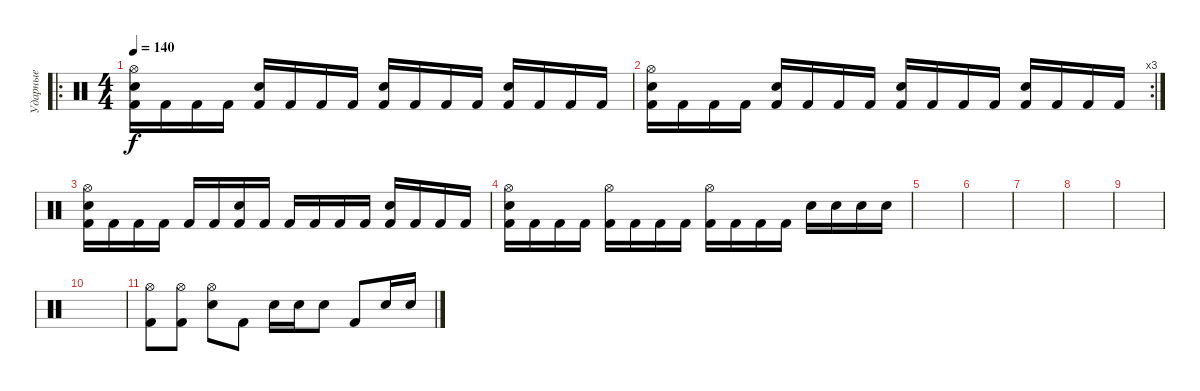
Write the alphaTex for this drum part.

\track ("Ударные" "Ударные") {instrument percussion}
\staff {score}
\articulation defaults
\ro
\ts (4 4)
\tempo 140
\clef neutral
\ks c
("Hi-Hat (open)" "Snare (hit) 2" "Kick (hit) 2").16{dy f} "Kick (hit) 2".16 "Kick (hit) 2".16 "Kick (hit) 2".16 ("Snare (hit) 2" "Kick (hit) 2").16 "Kick (hit) 2".16 "Kick (hit) 2".16 "Kick (hit) 2".16 ("Snare (hit) 2" "Kick (hit) 2").16 "Kick (hit) 2".16 "Kick (hit) 2".16 "Kick (hit) 2".16 ("Snare (hit) 2" "Kick (hit) 2").16 "Kick (hit) 2".16 "Kick (hit) 2".16 "Kick (hit) 2".16 |
\rc 3
("Hi-Hat (open)" "Snare (hit) 2" "Kick (hit) 2").16 "Kick (hit) 2".16 "Kick (hit) 2".16 "Kick (hit) 2".16 ("Snare (hit) 2" "Kick (hit) 2").16 "Kick (hit) 2".16 "Kick (hit) 2".16 "Kick (hit) 2".16 ("Snare (hit) 2" "Kick (hit) 2").16 "Kick (hit) 2".16 "Kick (hit) 2".16 "Kick (hit) 2".16 ("Snare (hit) 2" "Kick (hit) 2").16 "Kick (hit) 2".16 "Kick (hit) 2".16 "Kick (hit) 2".16 |
("Hi-Hat (open)" "Snare (hit) 2" "Kick (hit) 2").16 "Kick (hit) 2".16 "Kick (hit) 2".16 "Kick (hit) 2".16 "Kick (hit) 2".16 "Kick (hit) 2".16 ("Snare (hit) 2" "Kick (hit) 2").16 "Kick (hit) 2".16 "Kick (hit) 2".16 "Kick (hit) 2".16 "Kick (hit) 2".16 "Kick (hit) 2".16 ("Snare (hit) 2" "Kick (hit) 2").16 "Kick (hit) 2".16 "Kick (hit) 2".16 "Kick (hit) 2".16 |
("Hi-Hat (open)" "Snare (hit) 2" "Kick (hit) 2").16 "Kick (hit) 2".16 "Kick (hit) 2".16 "Kick (hit) 2".16 ("Hi-Hat (open)" "Kick (hit) 2").16 "Kick (hit) 2".16 "Kick (hit) 2".16 "Kick (hit) 2".16 ("Hi-Hat (open)" "Kick (hit) 2").16 "Kick (hit) 2".16 "Kick (hit) 2".16 "Kick (hit) 2".16 "Snare (hit) 2".16 "Snare (hit) 2".16 "Snare (hit) 2".16 "Snare (hit) 2".16 |
|
|
|
|
|
|
("Hi-Hat (open)" "Kick (hit) 2").8 ("Hi-Hat (open)" "Kick (hit) 2").8 ("Hi-Hat (open)" "Snare (hit) 2").8 "Kick (hit) 2".8 "Snare (hit) 2".16 "Snare (hit) 2".16 "Snare (hit) 2".8 "Kick (hit) 2".8 "Snare (hit) 2".16 "Snare (hit) 2".16
